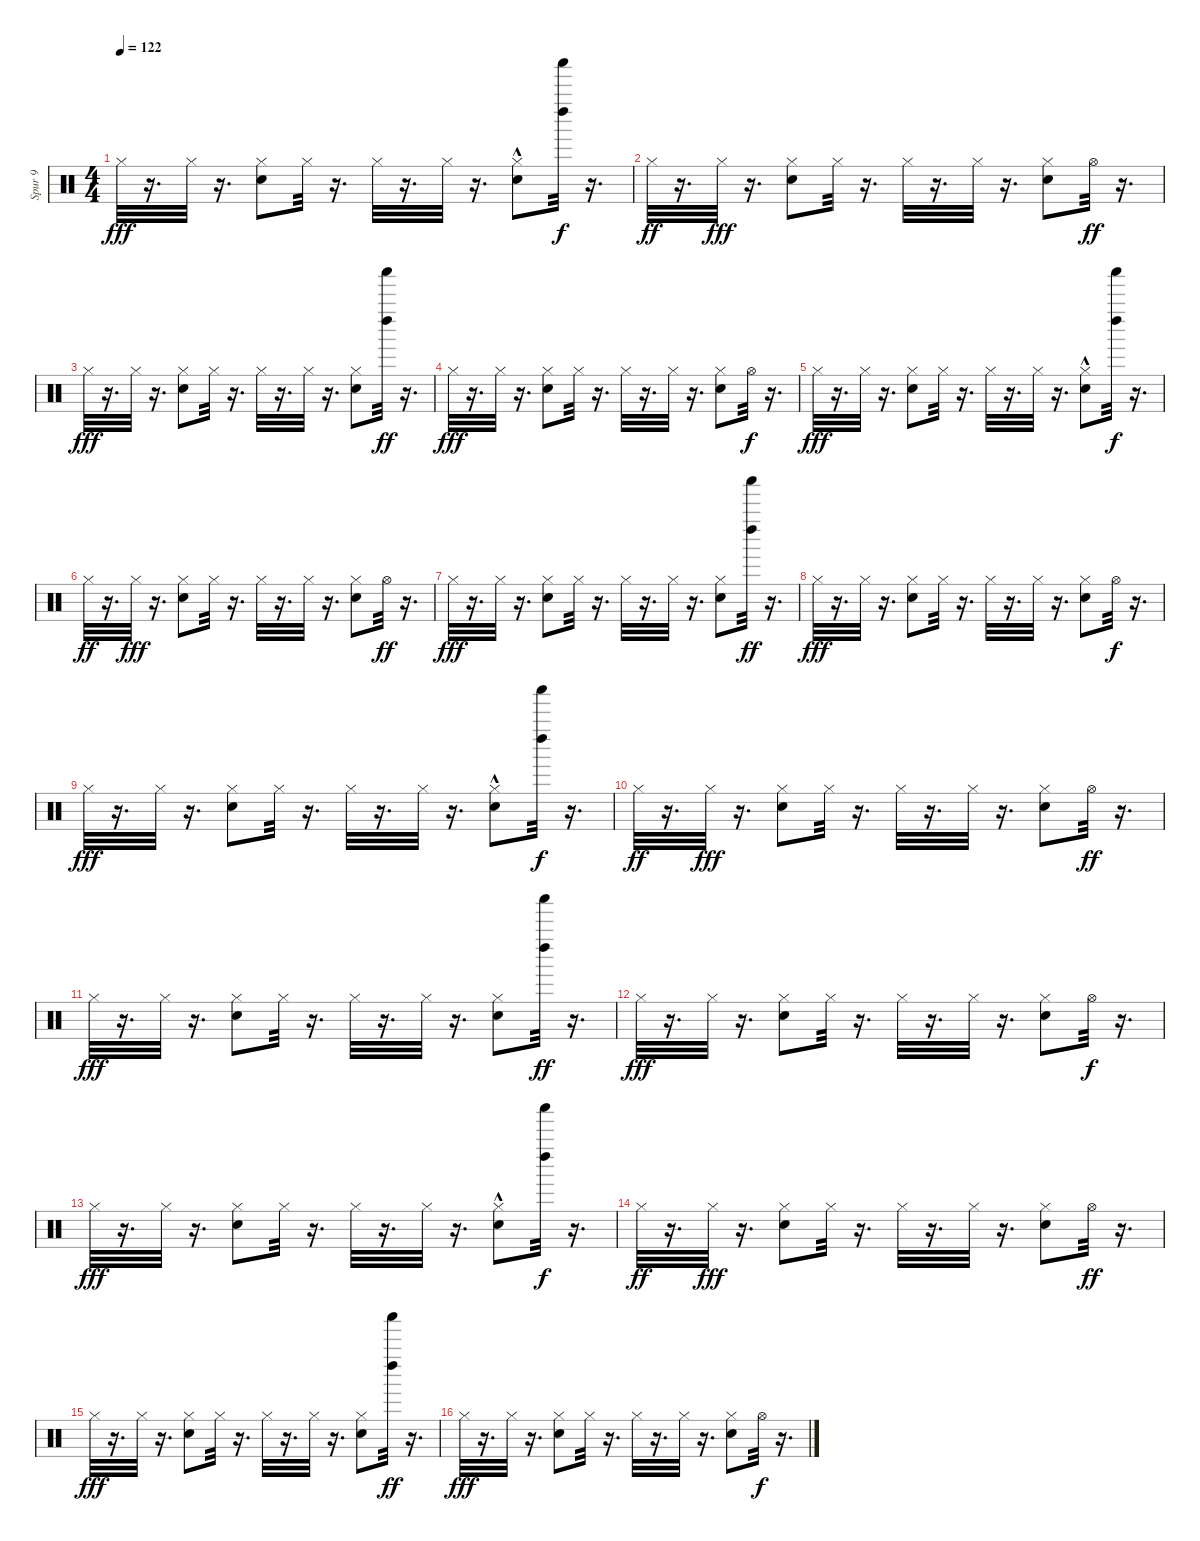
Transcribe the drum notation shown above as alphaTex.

\track ("Spur 9" "Spur 9") {instrument percussion}
\staff {score}
\articulation defaults
\ts (4 4)
\tempo 122
\clef neutral
\ks c "Hi-Hat (closed)".32{dy fff}
r.16{d} "Hi-Hat (closed)".32 r.16{d} ("Hi-Hat (closed)" "Metronome (bell)").8 "Hi-Hat (closed)".32 r.16{d} "Hi-Hat (closed)".32 r.16{d} "Hi-Hat (closed)".32 r.16{d} ("Hi-Hat (closed)" "Metronome (bell)"{hac}).8 ("Shaker (hit)" "Left Maraca (hit)").32{dy f} r.16{d} |
"Hi-Hat (closed)".32{dy ff} r.16{d} "Hi-Hat (closed)".32{dy fff} r.16{d} ("Hi-Hat (closed)" "Metronome (bell)").8 "Hi-Hat (closed)".32 r.16{d} "Hi-Hat (closed)".32 r.16{d} "Hi-Hat (closed)".32 r.16{d} ("Hi-Hat (closed)" "Metronome (bell)").8 "Hi-Hat (open)".32{dy ff} r.16{d} |
"Hi-Hat (closed)".32{dy fff} r.16{d} "Hi-Hat (closed)".32 r.16{d} ("Hi-Hat (closed)" "Metronome (bell)").8 "Hi-Hat (closed)".32 r.16{d} "Hi-Hat (closed)".32 r.16{d} "Hi-Hat (closed)".32 r.16{d} ("Hi-Hat (closed)" "Metronome (bell)").8 ("Shaker (hit)" "Left Maraca (hit)").32{dy ff} r.16{d} |
"Hi-Hat (closed)".32{dy fff} r.16{d} "Hi-Hat (closed)".32 r.16{d} ("Hi-Hat (closed)" "Metronome (bell)").8 "Hi-Hat (closed)".32 r.16{d} "Hi-Hat (closed)".32 r.16{d} "Hi-Hat (closed)".32 r.16{d} ("Hi-Hat (closed)" "Metronome (bell)").8 "Hi-Hat (open)".32{dy f} r.16{d} |
"Hi-Hat (closed)".32{dy fff} r.16{d} "Hi-Hat (closed)".32 r.16{d} ("Hi-Hat (closed)" "Metronome (bell)").8 "Hi-Hat (closed)".32 r.16{d} "Hi-Hat (closed)".32 r.16{d} "Hi-Hat (closed)".32 r.16{d} ("Hi-Hat (closed)" "Metronome (bell)"{hac}).8 ("Shaker (hit)" "Left Maraca (hit)").32{dy f} r.16{d} |
"Hi-Hat (closed)".32{dy ff} r.16{d} "Hi-Hat (closed)".32{dy fff} r.16{d} ("Hi-Hat (closed)" "Metronome (bell)").8 "Hi-Hat (closed)".32 r.16{d} "Hi-Hat (closed)".32 r.16{d} "Hi-Hat (closed)".32 r.16{d} ("Hi-Hat (closed)" "Metronome (bell)").8 "Hi-Hat (open)".32{dy ff} r.16{d} |
"Hi-Hat (closed)".32{dy fff} r.16{d} "Hi-Hat (closed)".32 r.16{d} ("Hi-Hat (closed)" "Metronome (bell)").8 "Hi-Hat (closed)".32 r.16{d} "Hi-Hat (closed)".32 r.16{d} "Hi-Hat (closed)".32 r.16{d} ("Hi-Hat (closed)" "Metronome (bell)").8 ("Shaker (hit)" "Left Maraca (hit)").32{dy ff} r.16{d} |
"Hi-Hat (closed)".32{dy fff} r.16{d} "Hi-Hat (closed)".32 r.16{d} ("Hi-Hat (closed)" "Metronome (bell)").8 "Hi-Hat (closed)".32 r.16{d} "Hi-Hat (closed)".32 r.16{d} "Hi-Hat (closed)".32 r.16{d} ("Hi-Hat (closed)" "Metronome (bell)").8 "Hi-Hat (open)".32{dy f} r.16{d} |
"Hi-Hat (closed)".32{dy fff} r.16{d} "Hi-Hat (closed)".32 r.16{d} ("Hi-Hat (closed)" "Metronome (bell)").8 "Hi-Hat (closed)".32 r.16{d} "Hi-Hat (closed)".32 r.16{d} "Hi-Hat (closed)".32 r.16{d} ("Hi-Hat (closed)" "Metronome (bell)"{hac}).8 ("Shaker (hit)" "Left Maraca (hit)").32{dy f} r.16{d} |
"Hi-Hat (closed)".32{dy ff} r.16{d} "Hi-Hat (closed)".32{dy fff} r.16{d} ("Hi-Hat (closed)" "Metronome (bell)").8 "Hi-Hat (closed)".32 r.16{d} "Hi-Hat (closed)".32 r.16{d} "Hi-Hat (closed)".32 r.16{d} ("Hi-Hat (closed)" "Metronome (bell)").8 "Hi-Hat (open)".32{dy ff} r.16{d} |
"Hi-Hat (closed)".32{dy fff} r.16{d} "Hi-Hat (closed)".32 r.16{d} ("Hi-Hat (closed)" "Metronome (bell)").8 "Hi-Hat (closed)".32 r.16{d} "Hi-Hat (closed)".32 r.16{d} "Hi-Hat (closed)".32 r.16{d} ("Hi-Hat (closed)" "Metronome (bell)").8 ("Shaker (hit)" "Left Maraca (hit)").32{dy ff} r.16{d} |
"Hi-Hat (closed)".32{dy fff} r.16{d} "Hi-Hat (closed)".32 r.16{d} ("Hi-Hat (closed)" "Metronome (bell)").8 "Hi-Hat (closed)".32 r.16{d} "Hi-Hat (closed)".32 r.16{d} "Hi-Hat (closed)".32 r.16{d} ("Hi-Hat (closed)" "Metronome (bell)").8 "Hi-Hat (open)".32{dy f} r.16{d} |
"Hi-Hat (closed)".32{dy fff} r.16{d} "Hi-Hat (closed)".32 r.16{d} ("Hi-Hat (closed)" "Metronome (bell)").8 "Hi-Hat (closed)".32 r.16{d} "Hi-Hat (closed)".32 r.16{d} "Hi-Hat (closed)".32 r.16{d} ("Hi-Hat (closed)" "Metronome (bell)"{hac}).8 ("Shaker (hit)" "Left Maraca (hit)").32{dy f} r.16{d} |
"Hi-Hat (closed)".32{dy ff} r.16{d} "Hi-Hat (closed)".32{dy fff} r.16{d} ("Hi-Hat (closed)" "Metronome (bell)").8 "Hi-Hat (closed)".32 r.16{d} "Hi-Hat (closed)".32 r.16{d} "Hi-Hat (closed)".32 r.16{d} ("Hi-Hat (closed)" "Metronome (bell)").8 "Hi-Hat (open)".32{dy ff} r.16{d} |
"Hi-Hat (closed)".32{dy fff} r.16{d} "Hi-Hat (closed)".32 r.16{d} ("Hi-Hat (closed)" "Metronome (bell)").8 "Hi-Hat (closed)".32 r.16{d} "Hi-Hat (closed)".32 r.16{d} "Hi-Hat (closed)".32 r.16{d} ("Hi-Hat (closed)" "Metronome (bell)").8 ("Shaker (hit)" "Left Maraca (hit)").32{dy ff} r.16{d} |
"Hi-Hat (closed)".32{dy fff} r.16{d} "Hi-Hat (closed)".32 r.16{d} ("Hi-Hat (closed)" "Metronome (bell)").8 "Hi-Hat (closed)".32 r.16{d} "Hi-Hat (closed)".32 r.16{d} "Hi-Hat (closed)".32 r.16{d} ("Hi-Hat (closed)" "Metronome (bell)").8 "Hi-Hat (open)".32{dy f} r.16{d}
